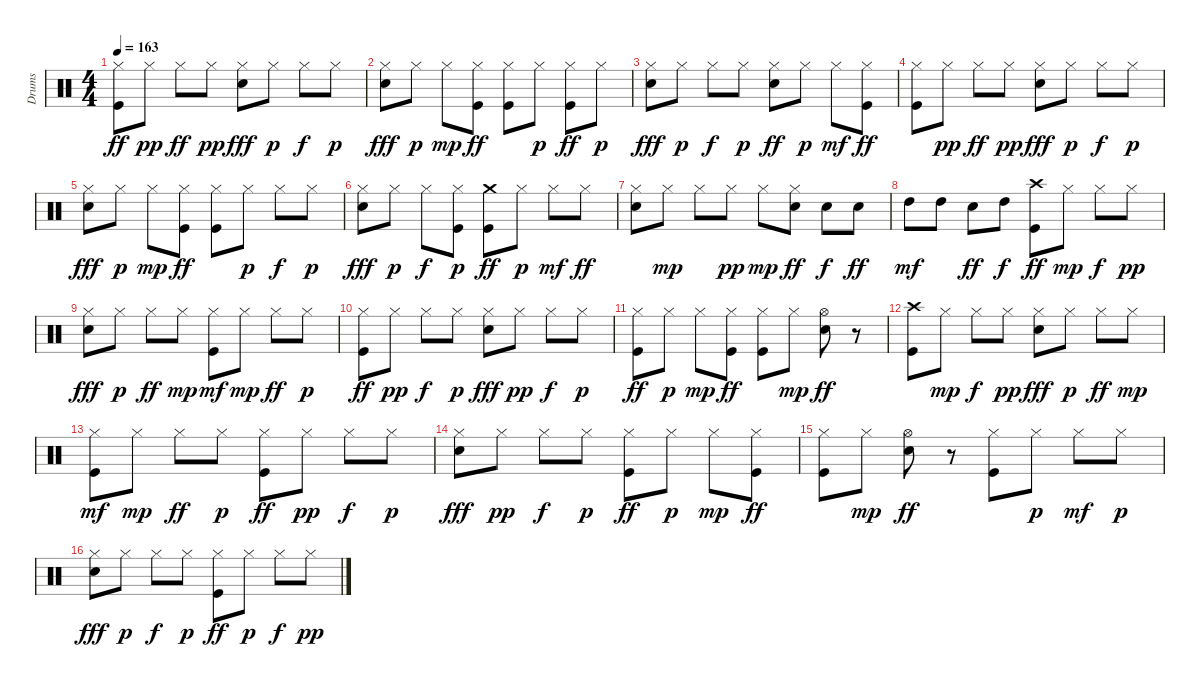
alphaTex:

\track ("Drums" "Drums") {instrument percussion}
\staff {score}
\articulation defaults
\ts (4 4)
\tempo 163
\clef neutral
\ks c
("Kick (hit)" "Hi-Hat (closed)").8{dy ff} "Hi-Hat (closed)".8{dy pp} "Hi-Hat (closed)".8{dy ff} "Hi-Hat (closed)".8{dy pp} ("Electric Snare (hit)" "Hi-Hat (closed)").8{dy fff} "Hi-Hat (closed)".8{dy p} "Hi-Hat (closed)".8{dy f} "Hi-Hat (closed)".8{dy p} |
("Electric Snare (hit)" "Hi-Hat (closed)").8{dy fff} "Hi-Hat (closed)".8{dy p} "Hi-Hat (closed)".8{dy mp} ("Kick (hit)" "Hi-Hat (closed)").8{dy ff} ("Kick (hit)" "Hi-Hat (closed)").8 "Hi-Hat (closed)".8{dy p} ("Kick (hit)" "Hi-Hat (closed)").8{dy ff} "Hi-Hat (closed)".8{dy p} |
("Electric Snare (hit)" "Hi-Hat (closed)").8{dy fff} "Hi-Hat (closed)".8{dy p} "Hi-Hat (closed)".8{dy f} "Hi-Hat (closed)".8{dy p} ("Electric Snare (hit)" "Hi-Hat (closed)").8{dy ff} "Hi-Hat (closed)".8{dy p} "Hi-Hat (closed)".8{dy mf} ("Kick (hit)" "Hi-Hat (closed)").8{dy ff} |
("Kick (hit)" "Hi-Hat (closed)").8 "Hi-Hat (closed)".8{dy pp} "Hi-Hat (closed)".8{dy ff} "Hi-Hat (closed)".8{dy pp} ("Electric Snare (hit)" "Hi-Hat (closed)").8{dy fff} "Hi-Hat (closed)".8{dy p} "Hi-Hat (closed)".8{dy f} "Hi-Hat (closed)".8{dy p} |
("Electric Snare (hit)" "Hi-Hat (closed)").8{dy fff} "Hi-Hat (closed)".8{dy p} "Hi-Hat (closed)".8{dy mp} ("Kick (hit)" "Hi-Hat (closed)").8{dy ff} ("Kick (hit)" "Hi-Hat (closed)").8 "Hi-Hat (closed)".8{dy p} "Hi-Hat (closed)".8{dy f} "Hi-Hat (closed)".8{dy p} |
("Electric Snare (hit)" "Hi-Hat (closed)").8{dy fff} "Hi-Hat (closed)".8{dy p} "Hi-Hat (closed)".8{dy f} ("Kick (hit)" "Hi-Hat (closed)").8{dy p} ("Kick (hit)" "Crash medium (hit)").8{dy ff} "Hi-Hat (closed)".8{dy p} "Hi-Hat (closed)".8{dy mf} "Hi-Hat (closed)".8{dy ff} |
("Electric Snare (hit)" "Hi-Hat (closed)").8 "Hi-Hat (closed)".8{dy mp} "Hi-Hat (closed)".8 "Hi-Hat (closed)".8{dy pp} "Hi-Hat (closed)".8{dy mp} ("Electric Snare (hit)" "Hi-Hat (closed)").8{dy ff} "Electric Snare (hit)".8{dy f} "Electric Snare (hit)".8{dy ff} |
"High Tom (hit)".8{dy mf} "High Tom (hit)".8 "Electric Snare (hit)".8{dy ff} "High Tom (hit)".8{dy f} ("Kick (hit)" "Crash high (hit)").8{dy ff} "Hi-Hat (closed)".8{dy mp} "Hi-Hat (closed)".8{dy f} "Hi-Hat (closed)".8{dy pp} |
("Electric Snare (hit)" "Hi-Hat (closed)").8{dy fff} "Hi-Hat (closed)".8{dy p} "Hi-Hat (closed)".8{dy ff} "Hi-Hat (closed)".8{dy mp} ("Kick (hit)" "Hi-Hat (closed)").8{dy mf} "Hi-Hat (closed)".8{dy mp} "Hi-Hat (closed)".8{dy ff} "Hi-Hat (closed)".8{dy p} |
("Kick (hit)" "Hi-Hat (closed)").8{dy ff} "Hi-Hat (closed)".8{dy pp} "Hi-Hat (closed)".8{dy f} "Hi-Hat (closed)".8{dy p} ("Electric Snare (hit)" "Hi-Hat (closed)").8{dy fff} "Hi-Hat (closed)".8{dy pp} "Hi-Hat (closed)".8{dy f} "Hi-Hat (closed)".8{dy p} |
("Kick (hit)" "Hi-Hat (closed)").8{dy ff} "Hi-Hat (closed)".8{dy p} "Hi-Hat (closed)".8{dy mp} ("Kick (hit)" "Hi-Hat (closed)").8{dy ff} ("Kick (hit)" "Hi-Hat (closed)").8 "Hi-Hat (closed)".8{dy mp} ("Electric Snare (hit)" "Hi-Hat (open)").8{dy ff} r.8 |
("Kick (hit)" "Crash high (hit)").8 "Hi-Hat (closed)".8{dy mp} "Hi-Hat (closed)".8{dy f} "Hi-Hat (closed)".8{dy pp} ("Electric Snare (hit)" "Hi-Hat (closed)").8{dy fff} "Hi-Hat (closed)".8{dy p} "Hi-Hat (closed)".8{dy ff} "Hi-Hat (closed)".8{dy mp} |
("Kick (hit)" "Hi-Hat (closed)").8{dy mf} "Hi-Hat (closed)".8{dy mp} "Hi-Hat (closed)".8{dy ff} "Hi-Hat (closed)".8{dy p} ("Kick (hit)" "Hi-Hat (closed)").8{dy ff} "Hi-Hat (closed)".8{dy pp} "Hi-Hat (closed)".8{dy f} "Hi-Hat (closed)".8{dy p} |
("Electric Snare (hit)" "Hi-Hat (closed)").8{dy fff} "Hi-Hat (closed)".8{dy pp} "Hi-Hat (closed)".8{dy f} "Hi-Hat (closed)".8{dy p} ("Kick (hit)" "Hi-Hat (closed)").8{dy ff} "Hi-Hat (closed)".8{dy p} "Hi-Hat (closed)".8{dy mp} ("Kick (hit)" "Hi-Hat (closed)").8{dy ff} |
("Kick (hit)" "Hi-Hat (closed)").8 "Hi-Hat (closed)".8{dy mp} ("Electric Snare (hit)" "Hi-Hat (open)").8{dy ff} r.8 ("Kick (hit)" "Hi-Hat (closed)").8 "Hi-Hat (closed)".8{dy p} "Hi-Hat (closed)".8{dy mf} "Hi-Hat (closed)".8{dy p} |
("Electric Snare (hit)" "Hi-Hat (closed)").8{dy fff} "Hi-Hat (closed)".8{dy p} "Hi-Hat (closed)".8{dy f} "Hi-Hat (closed)".8{dy p} ("Kick (hit)" "Hi-Hat (closed)").8{dy ff} "Hi-Hat (closed)".8{dy p} "Hi-Hat (closed)".8{dy f} "Hi-Hat (closed)".8{dy pp}
